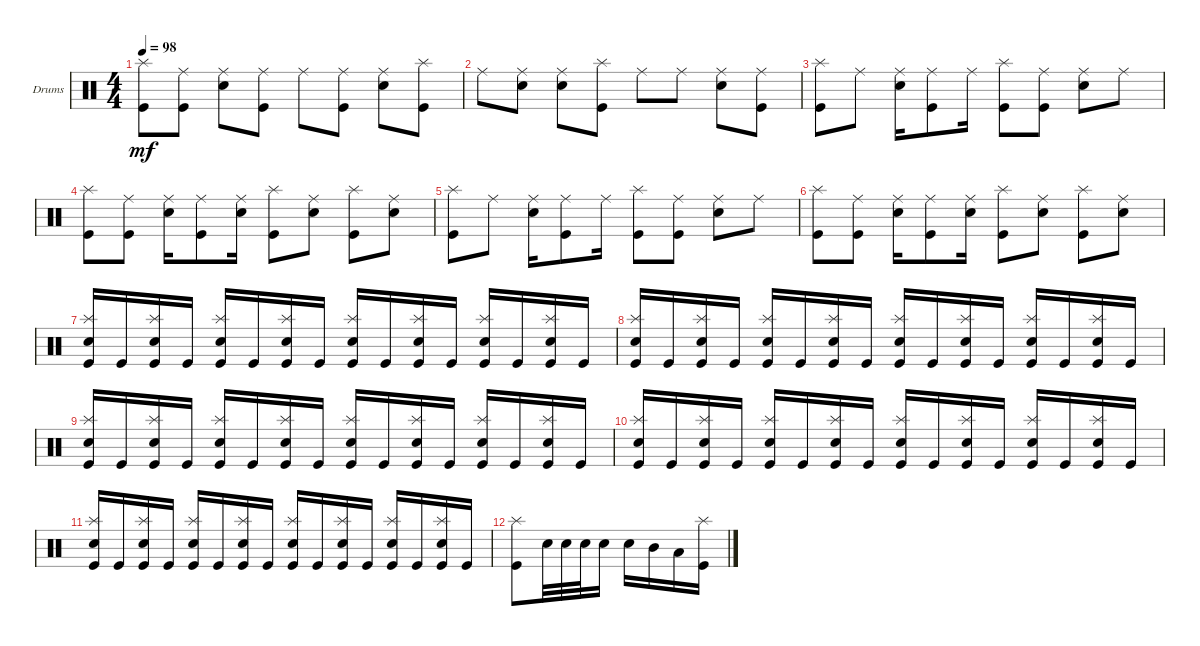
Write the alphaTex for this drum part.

\defaultSystemsLayout 4
\bracketExtendMode groupsimilarinstruments
\firstSystemTrackNameOrientation horizontal
\otherSystemsTrackNameOrientation horizontal
\track ("Frank Fontsere" "Drums") {instrument percussion}
\staff {score}
\articulation defaults
\ts (4 4)
\tempo 98
\clef neutral
\ks c
("Kick (hit)" "Splash (hit)").8{dy mf} ("Ride (middle)" "Kick (hit)").8 ("Ride (middle)" "Snare (hit) 2").8 ("Kick (hit)" "Ride (middle)").8 "Ride (middle)".8 ("Ride (middle)" "Kick (hit)").8 ("Ride (middle)" "Snare (hit) 2").8 ("Kick (hit)" "Splash (hit)").8 |
"Ride (middle)".8 ("Snare (hit) 2" "Ride (middle)").8 ("Ride (middle)" "Snare (hit) 2").8 ("Splash (hit)" "Kick (hit)").8 "Ride (middle)".8 "Ride (middle)".8 ("Snare (hit) 2" "Ride (middle)").8 ("Kick (hit)" "Ride (middle)").8 |
("Kick (hit)" "Splash (hit)").8 "Ride (middle)".8 ("Ride (middle)" "Snare (hit) 2").16 ("Ride (middle)" "Kick (hit)").8 "Ride (middle)".16 ("Kick (hit)" "Splash (hit)").8 ("Ride (middle)" "Kick (hit)").8 ("Snare (hit) 2" "Ride (middle)").8 "Ride (middle)".8 |
("Kick (hit)" "Splash (hit)").8 ("Kick (hit)" "Ride (middle)").8 ("Snare (hit) 2" "Ride (middle)").16 ("Kick (hit)" "Ride (middle)").8 ("Ride (middle)" "Snare (hit) 2").16 ("Kick (hit)" "Splash (hit)").8 ("Snare (hit) 2" "Ride (middle)").8 ("Kick (hit)" "Splash (hit)").8 ("Snare (hit) 2" "Ride (middle)").8 |
("Kick (hit)" "Splash (hit)").8 "Ride (middle)".8 ("Ride (middle)" "Snare (hit) 2").16 ("Ride (middle)" "Kick (hit)").8 "Ride (middle)".16 ("Kick (hit)" "Splash (hit)").8 ("Ride (middle)" "Kick (hit)").8 ("Snare (hit) 2" "Ride (middle)").8 "Ride (middle)".8 |
("Kick (hit)" "Splash (hit)").8 ("Kick (hit)" "Ride (middle)").8 ("Snare (hit) 2" "Ride (middle)").16 ("Kick (hit)" "Ride (middle)").8 ("Ride (middle)" "Snare (hit) 2").16 ("Kick (hit)" "Splash (hit)").8 ("Snare (hit) 2" "Ride (middle)").8 ("Kick (hit)" "Splash (hit)").8 ("Snare (hit) 2" "Ride (middle)").8 |
("Kick (hit)" "Snare (hit) 2" "Splash (hit)").16 "Kick (hit)".16 ("Kick (hit)" "Snare (hit) 2" "Splash (hit)").16 "Kick (hit)".16 ("Kick (hit)" "Snare (hit) 2" "Splash (hit)").16 "Kick (hit)".16 ("Kick (hit)" "Snare (hit) 2" "Splash (hit)").16 "Kick (hit)".16 ("Kick (hit)" "Snare (hit) 2" "Splash (hit)").16 "Kick (hit)".16 ("Kick (hit)" "Snare (hit) 2" "Splash (hit)").16 "Kick (hit)".16 ("Kick (hit)" "Snare (hit) 2" "Splash (hit)").16 "Kick (hit)".16 ("Kick (hit)" "Snare (hit) 2" "Splash (hit)").16 "Kick (hit)".16 |
("Kick (hit)" "Snare (hit) 2" "Splash (hit)").16 "Kick (hit)".16 ("Kick (hit)" "Snare (hit) 2" "Splash (hit)").16 "Kick (hit)".16 ("Kick (hit)" "Snare (hit) 2" "Splash (hit)").16 "Kick (hit)".16 ("Kick (hit)" "Snare (hit) 2" "Splash (hit)").16 "Kick (hit)".16 ("Kick (hit)" "Snare (hit) 2" "Splash (hit)").16 "Kick (hit)".16 ("Kick (hit)" "Snare (hit) 2" "Splash (hit)").16 "Kick (hit)".16 ("Kick (hit)" "Snare (hit) 2" "Splash (hit)").16 "Kick (hit)".16 ("Kick (hit)" "Snare (hit) 2" "Splash (hit)").16 "Kick (hit)".16 |
("Kick (hit)" "Snare (hit) 2" "Splash (hit)").16 "Kick (hit)".16 ("Kick (hit)" "Snare (hit) 2" "Splash (hit)").16 "Kick (hit)".16 ("Kick (hit)" "Snare (hit) 2" "Splash (hit)").16 "Kick (hit)".16 ("Kick (hit)" "Snare (hit) 2" "Splash (hit)").16 "Kick (hit)".16 ("Kick (hit)" "Snare (hit) 2" "Splash (hit)").16 "Kick (hit)".16 ("Kick (hit)" "Snare (hit) 2" "Splash (hit)").16 "Kick (hit)".16 ("Kick (hit)" "Snare (hit) 2" "Splash (hit)").16 "Kick (hit)".16 ("Kick (hit)" "Snare (hit) 2" "Splash (hit)").16 "Kick (hit)".16 |
("Kick (hit)" "Snare (hit) 2" "Splash (hit)").16 "Kick (hit)".16 ("Kick (hit)" "Snare (hit) 2" "Splash (hit)").16 "Kick (hit)".16 ("Kick (hit)" "Snare (hit) 2" "Splash (hit)").16 "Kick (hit)".16 ("Kick (hit)" "Snare (hit) 2" "Splash (hit)").16 "Kick (hit)".16 ("Kick (hit)" "Snare (hit) 2" "Splash (hit)").16 "Kick (hit)".16 ("Kick (hit)" "Snare (hit) 2" "Splash (hit)").16 "Kick (hit)".16 ("Kick (hit)" "Snare (hit) 2" "Splash (hit)").16 "Kick (hit)".16 ("Kick (hit)" "Snare (hit) 2" "Splash (hit)").16 "Kick (hit)".16 |
("Kick (hit)" "Snare (hit) 2" "Splash (hit)").16 "Kick (hit)".16 ("Kick (hit)" "Snare (hit) 2" "Splash (hit)").16 "Kick (hit)".16 ("Kick (hit)" "Snare (hit) 2" "Splash (hit)").16 "Kick (hit)".16 ("Kick (hit)" "Snare (hit) 2" "Splash (hit)").16 "Kick (hit)".16 ("Kick (hit)" "Snare (hit) 2" "Splash (hit)").16 "Kick (hit)".16 ("Kick (hit)" "Snare (hit) 2" "Splash (hit)").16 "Kick (hit)".16 ("Kick (hit)" "Snare (hit) 2" "Splash (hit)").16 "Kick (hit)".16 ("Kick (hit)" "Snare (hit) 2" "Splash (hit)").16 "Kick (hit)".16 |
("Kick (hit)" "Splash (hit)").8 "Snare (hit) 2".32 "Snare (hit) 2".32 "Snare (hit) 2".32 "Snare (hit) 2".16 "Snare (hit) 2".16 "Mid Tom (hit)".16 "Low Tom (hit)".16 ("Kick (hit)" "Splash (hit)").16
